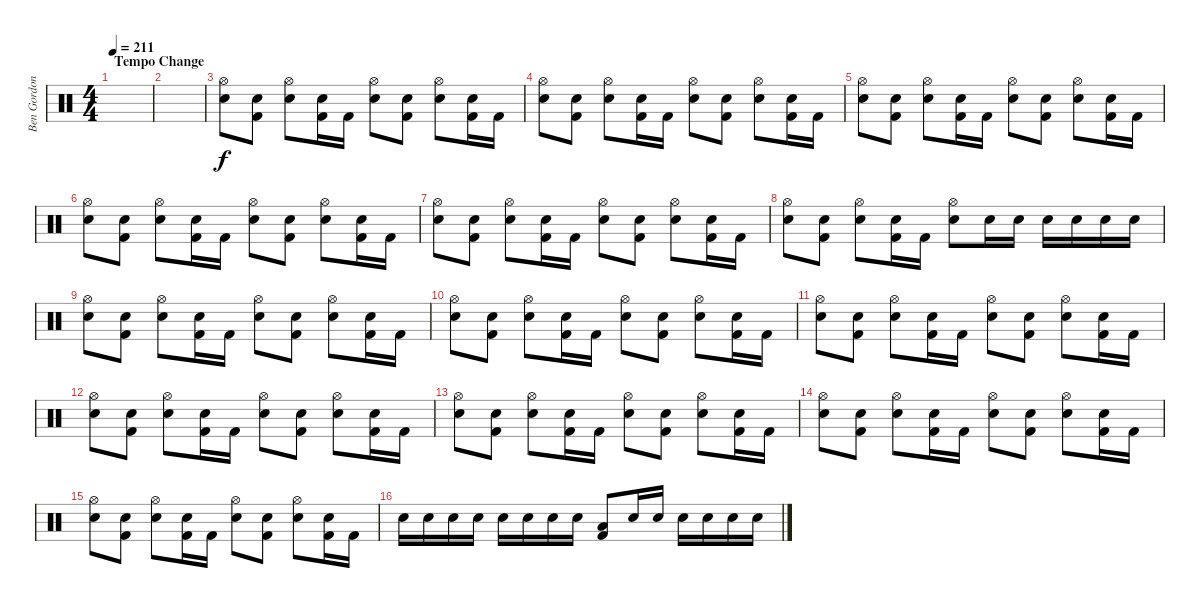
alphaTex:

\track ("Ben Gordon" "Ben Gordon") {instrument percussion}
\staff {score}
\articulation defaults
\ts (4 4)
\section ("" "Tempo Change")
\tempo 211
\clef neutral
\ks c
|
|
("Hi-Hat (open)" "Electric Snare (hit)").8{dy f} ("Electric Snare (hit)" "Kick (hit) 2").8 ("Hi-Hat (open)" "Electric Snare (hit)").8 ("Electric Snare (hit)" "Kick (hit) 2").16 "Kick (hit) 2".16 ("Hi-Hat (open)" "Electric Snare (hit)").8 ("Electric Snare (hit)" "Kick (hit) 2").8 ("Hi-Hat (open)" "Electric Snare (hit)").8 ("Electric Snare (hit)" "Kick (hit) 2").16 "Kick (hit) 2".16 |
("Hi-Hat (open)" "Electric Snare (hit)").8 ("Electric Snare (hit)" "Kick (hit) 2").8 ("Hi-Hat (open)" "Electric Snare (hit)").8 ("Electric Snare (hit)" "Kick (hit) 2").16 "Kick (hit) 2".16 ("Hi-Hat (open)" "Electric Snare (hit)").8 ("Electric Snare (hit)" "Kick (hit) 2").8 ("Hi-Hat (open)" "Electric Snare (hit)").8 ("Electric Snare (hit)" "Kick (hit) 2").16 "Kick (hit) 2".16 |
("Hi-Hat (open)" "Electric Snare (hit)").8 ("Electric Snare (hit)" "Kick (hit) 2").8 ("Hi-Hat (open)" "Electric Snare (hit)").8 ("Electric Snare (hit)" "Kick (hit) 2").16 "Kick (hit) 2".16 ("Hi-Hat (open)" "Electric Snare (hit)").8 ("Electric Snare (hit)" "Kick (hit) 2").8 ("Hi-Hat (open)" "Electric Snare (hit)").8 ("Electric Snare (hit)" "Kick (hit) 2").16 "Kick (hit) 2".16 |
("Hi-Hat (open)" "Electric Snare (hit)").8 ("Electric Snare (hit)" "Kick (hit) 2").8 ("Hi-Hat (open)" "Electric Snare (hit)").8 ("Electric Snare (hit)" "Kick (hit) 2").16 "Kick (hit) 2".16 ("Hi-Hat (open)" "Electric Snare (hit)").8 ("Electric Snare (hit)" "Kick (hit) 2").8 ("Hi-Hat (open)" "Electric Snare (hit)").8 ("Electric Snare (hit)" "Kick (hit) 2").16 "Kick (hit) 2".16 |
("Hi-Hat (open)" "Electric Snare (hit)").8 ("Electric Snare (hit)" "Kick (hit) 2").8 ("Hi-Hat (open)" "Electric Snare (hit)").8 ("Electric Snare (hit)" "Kick (hit) 2").16 "Kick (hit) 2".16 ("Hi-Hat (open)" "Electric Snare (hit)").8 ("Electric Snare (hit)" "Kick (hit) 2").8 ("Hi-Hat (open)" "Electric Snare (hit)").8 ("Electric Snare (hit)" "Kick (hit) 2").16 "Kick (hit) 2".16 |
("Hi-Hat (open)" "Electric Snare (hit)").8 ("Electric Snare (hit)" "Kick (hit) 2").8 ("Hi-Hat (open)" "Electric Snare (hit)").8 ("Electric Snare (hit)" "Kick (hit) 2").16 "Kick (hit) 2".16 ("Hi-Hat (open)" "Electric Snare (hit)").8 "Electric Snare (hit)".16 "Electric Snare (hit)".16 "Electric Snare (hit)".16 "Electric Snare (hit)".16 "Electric Snare (hit)".16 "Electric Snare (hit)".16 |
("Hi-Hat (open)" "Electric Snare (hit)").8 ("Electric Snare (hit)" "Kick (hit) 2").8 ("Hi-Hat (open)" "Electric Snare (hit)").8 ("Electric Snare (hit)" "Kick (hit) 2").16 "Kick (hit) 2".16 ("Hi-Hat (open)" "Electric Snare (hit)").8 ("Electric Snare (hit)" "Kick (hit) 2").8 ("Hi-Hat (open)" "Electric Snare (hit)").8 ("Electric Snare (hit)" "Kick (hit) 2").16 "Kick (hit) 2".16 |
("Hi-Hat (open)" "Electric Snare (hit)").8 ("Electric Snare (hit)" "Kick (hit) 2").8 ("Hi-Hat (open)" "Electric Snare (hit)").8 ("Electric Snare (hit)" "Kick (hit) 2").16 "Kick (hit) 2".16 ("Hi-Hat (open)" "Electric Snare (hit)").8 ("Electric Snare (hit)" "Kick (hit) 2").8 ("Hi-Hat (open)" "Electric Snare (hit)").8 ("Electric Snare (hit)" "Kick (hit) 2").16 "Kick (hit) 2".16 |
("Hi-Hat (open)" "Electric Snare (hit)").8 ("Electric Snare (hit)" "Kick (hit) 2").8 ("Hi-Hat (open)" "Electric Snare (hit)").8 ("Electric Snare (hit)" "Kick (hit) 2").16 "Kick (hit) 2".16 ("Hi-Hat (open)" "Electric Snare (hit)").8 ("Electric Snare (hit)" "Kick (hit) 2").8 ("Hi-Hat (open)" "Electric Snare (hit)").8 ("Electric Snare (hit)" "Kick (hit) 2").16 "Kick (hit) 2".16 |
("Hi-Hat (open)" "Electric Snare (hit)").8 ("Electric Snare (hit)" "Kick (hit) 2").8 ("Hi-Hat (open)" "Electric Snare (hit)").8 ("Electric Snare (hit)" "Kick (hit) 2").16 "Kick (hit) 2".16 ("Hi-Hat (open)" "Electric Snare (hit)").8 ("Electric Snare (hit)" "Kick (hit) 2").8 ("Hi-Hat (open)" "Electric Snare (hit)").8 ("Electric Snare (hit)" "Kick (hit) 2").16 "Kick (hit) 2".16 |
("Hi-Hat (open)" "Electric Snare (hit)").8 ("Electric Snare (hit)" "Kick (hit) 2").8 ("Hi-Hat (open)" "Electric Snare (hit)").8 ("Electric Snare (hit)" "Kick (hit) 2").16 "Kick (hit) 2".16 ("Hi-Hat (open)" "Electric Snare (hit)").8 ("Electric Snare (hit)" "Kick (hit) 2").8 ("Hi-Hat (open)" "Electric Snare (hit)").8 ("Electric Snare (hit)" "Kick (hit) 2").16 "Kick (hit) 2".16 |
("Hi-Hat (open)" "Electric Snare (hit)").8 ("Electric Snare (hit)" "Kick (hit) 2").8 ("Hi-Hat (open)" "Electric Snare (hit)").8 ("Electric Snare (hit)" "Kick (hit) 2").16 "Kick (hit) 2".16 ("Hi-Hat (open)" "Electric Snare (hit)").8 ("Electric Snare (hit)" "Kick (hit) 2").8 ("Hi-Hat (open)" "Electric Snare (hit)").8 ("Electric Snare (hit)" "Kick (hit) 2").16 "Kick (hit) 2".16 |
("Hi-Hat (open)" "Electric Snare (hit)").8 ("Electric Snare (hit)" "Kick (hit) 2").8 ("Hi-Hat (open)" "Electric Snare (hit)").8 ("Electric Snare (hit)" "Kick (hit) 2").16 "Kick (hit) 2".16 ("Hi-Hat (open)" "Electric Snare (hit)").8 ("Electric Snare (hit)" "Kick (hit) 2").8 ("Hi-Hat (open)" "Electric Snare (hit)").8 ("Electric Snare (hit)" "Kick (hit) 2").16 "Kick (hit) 2".16 |
"Electric Snare (hit)".16 "Electric Snare (hit)".16 "Electric Snare (hit)".16 "Electric Snare (hit)".16 "Electric Snare (hit)".16 "Electric Snare (hit)".16 "Electric Snare (hit)".16 "Electric Snare (hit)".16 ("Low Floor Tom (hit)" "Kick (hit) 2").8 "Electric Snare (hit)".16 "Electric Snare (hit)".16 "Electric Snare (hit)".16 "Electric Snare (hit)".16 "Electric Snare (hit)".16 "Electric Snare (hit)".16
